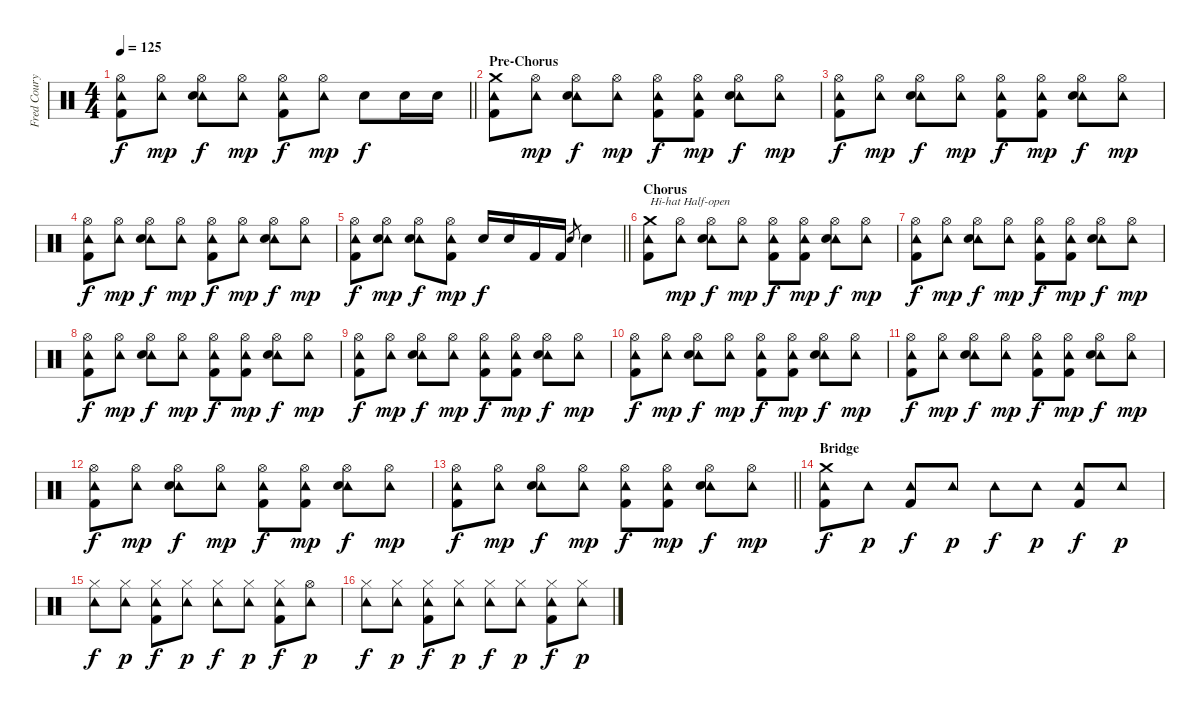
\track ("Fred Coury - Drums" "Fred Coury") {instrument percussion}
\staff {score}
\articulation defaults
\ts (4 4)
\tempo 125
\clef neutral
\barLineRight lightlight
\ks c
("Hi-Hat (open)" "Tambourine (hit)" "Kick (hit) 2").8{dy f} ("Hi-Hat (open)" "Tambourine (hit)").8{dy mp} ("Hi-Hat (open)" "Tambourine (hit)" "Snare (hit) 2").8{dy f} ("Hi-Hat (open)" "Tambourine (hit)").8{dy mp} ("Hi-Hat (open)" "Tambourine (hit)" "Kick (hit) 2").8{dy f} ("Hi-Hat (open)" "Tambourine (hit)").8{dy mp} "Snare (hit) 2".8{dy f} "Snare (hit) 2".16 "Snare (hit) 2".16 |
\section ("" "Pre-Chorus")
("Crash medium (hit)" "Tambourine (hit)" "Kick (hit) 2").8 ("Hi-Hat (open)" "Tambourine (hit)").8{dy mp} ("Hi-Hat (open)" "Tambourine (hit)" "Snare (hit) 2").8{dy f} ("Hi-Hat (open)" "Tambourine (hit)").8{dy mp} ("Hi-Hat (open)" "Tambourine (hit)" "Kick (hit) 2").8{dy f} ("Hi-Hat (open)" "Tambourine (hit)" "Kick (hit) 2").8{dy mp} ("Hi-Hat (open)" "Tambourine (hit)" "Snare (hit) 2").8{dy f} ("Hi-Hat (open)" "Tambourine (hit)").8{dy mp} |
("Hi-Hat (open)" "Tambourine (hit)" "Kick (hit) 2").8{dy f} ("Hi-Hat (open)" "Tambourine (hit)").8{dy mp} ("Hi-Hat (open)" "Tambourine (hit)" "Snare (hit) 2").8{dy f} ("Hi-Hat (open)" "Tambourine (hit)").8{dy mp} ("Hi-Hat (open)" "Tambourine (hit)" "Kick (hit) 2").8{dy f} ("Hi-Hat (open)" "Tambourine (hit)" "Kick (hit) 2").8{dy mp} ("Hi-Hat (open)" "Tambourine (hit)" "Snare (hit) 2").8{dy f} ("Hi-Hat (open)" "Tambourine (hit)").8{dy mp} |
("Hi-Hat (open)" "Tambourine (hit)" "Kick (hit) 2").8{dy f} ("Hi-Hat (open)" "Tambourine (hit)").8{dy mp} ("Hi-Hat (open)" "Tambourine (hit)" "Snare (hit) 2").8{dy f} ("Hi-Hat (open)" "Tambourine (hit)").8{dy mp} ("Hi-Hat (open)" "Tambourine (hit)" "Kick (hit) 2").8{dy f} ("Hi-Hat (open)" "Tambourine (hit)").8{dy mp} ("Hi-Hat (open)" "Tambourine (hit)" "Snare (hit) 2").8{dy f} ("Hi-Hat (open)" "Tambourine (hit)").8{dy mp} |
\barLineRight lightlight
("Hi-Hat (open)" "Tambourine (hit)" "Kick (hit) 2").8{dy f} ("Hi-Hat (open)" "Tambourine (hit)" "Snare (hit) 2").8{dy mp} ("Hi-Hat (open)" "Tambourine (hit)" "Snare (hit) 2").8{dy f} ("Hi-Hat (open)" "Tambourine (hit)" "Kick (hit) 2").8{dy mp} "Snare (hit) 2".16{dy f} "Snare (hit) 2".16 "Kick (hit) 2".16 "Kick (hit) 2".16 "Snare (hit) 2".8{gr} "Snare (hit) 2".4 |
\section ("" "Chorus")
("Crash medium (hit)" "Tambourine (hit)" "Kick (hit) 2").8{txt "Hi-hat Half-open"} ("Hi-Hat (open)" "Tambourine (hit)").8{dy mp} ("Hi-Hat (open)" "Tambourine (hit)" "Snare (hit) 2").8{dy f} ("Hi-Hat (open)" "Tambourine (hit)").8{dy mp} ("Hi-Hat (open)" "Tambourine (hit)" "Kick (hit) 2").8{dy f} ("Hi-Hat (open)" "Tambourine (hit)" "Kick (hit) 2").8{dy mp} ("Hi-Hat (open)" "Tambourine (hit)" "Snare (hit) 2").8{dy f} ("Hi-Hat (open)" "Tambourine (hit)").8{dy mp} |
("Hi-Hat (open)" "Tambourine (hit)" "Kick (hit) 2").8{dy f} ("Hi-Hat (open)" "Tambourine (hit)").8{dy mp} ("Hi-Hat (open)" "Tambourine (hit)" "Snare (hit) 2").8{dy f} ("Hi-Hat (open)" "Tambourine (hit)").8{dy mp} ("Hi-Hat (open)" "Tambourine (hit)" "Kick (hit) 2").8{dy f} ("Hi-Hat (open)" "Tambourine (hit)" "Kick (hit) 2").8{dy mp} ("Hi-Hat (open)" "Tambourine (hit)" "Snare (hit) 2").8{dy f} ("Hi-Hat (open)" "Tambourine (hit)").8{dy mp} |
("Hi-Hat (open)" "Tambourine (hit)" "Kick (hit) 2").8{dy f} ("Hi-Hat (open)" "Tambourine (hit)").8{dy mp} ("Hi-Hat (open)" "Tambourine (hit)" "Snare (hit) 2").8{dy f} ("Hi-Hat (open)" "Tambourine (hit)").8{dy mp} ("Hi-Hat (open)" "Tambourine (hit)" "Kick (hit) 2").8{dy f} ("Hi-Hat (open)" "Tambourine (hit)" "Kick (hit) 2").8{dy mp} ("Hi-Hat (open)" "Tambourine (hit)" "Snare (hit) 2").8{dy f} ("Hi-Hat (open)" "Tambourine (hit)").8{dy mp} |
("Hi-Hat (open)" "Tambourine (hit)" "Kick (hit) 2").8{dy f} ("Hi-Hat (open)" "Tambourine (hit)").8{dy mp} ("Hi-Hat (open)" "Tambourine (hit)" "Snare (hit) 2").8{dy f} ("Hi-Hat (open)" "Tambourine (hit)").8{dy mp} ("Hi-Hat (open)" "Tambourine (hit)" "Kick (hit) 2").8{dy f} ("Hi-Hat (open)" "Tambourine (hit)" "Kick (hit) 2").8{dy mp} ("Hi-Hat (open)" "Tambourine (hit)" "Snare (hit) 2").8{dy f} ("Hi-Hat (open)" "Tambourine (hit)").8{dy mp} |
("Hi-Hat (open)" "Tambourine (hit)" "Kick (hit) 2").8{dy f} ("Hi-Hat (open)" "Tambourine (hit)").8{dy mp} ("Hi-Hat (open)" "Tambourine (hit)" "Snare (hit) 2").8{dy f} ("Hi-Hat (open)" "Tambourine (hit)").8{dy mp} ("Hi-Hat (open)" "Tambourine (hit)" "Kick (hit) 2").8{dy f} ("Hi-Hat (open)" "Tambourine (hit)" "Kick (hit) 2").8{dy mp} ("Hi-Hat (open)" "Tambourine (hit)" "Snare (hit) 2").8{dy f} ("Hi-Hat (open)" "Tambourine (hit)").8{dy mp} |
("Hi-Hat (open)" "Tambourine (hit)" "Kick (hit) 2").8{dy f} ("Hi-Hat (open)" "Tambourine (hit)").8{dy mp} ("Hi-Hat (open)" "Tambourine (hit)" "Snare (hit) 2").8{dy f} ("Hi-Hat (open)" "Tambourine (hit)").8{dy mp} ("Hi-Hat (open)" "Tambourine (hit)" "Kick (hit) 2").8{dy f} ("Hi-Hat (open)" "Tambourine (hit)" "Kick (hit) 2").8{dy mp} ("Hi-Hat (open)" "Tambourine (hit)" "Snare (hit) 2").8{dy f} ("Hi-Hat (open)" "Tambourine (hit)").8{dy mp} |
("Hi-Hat (open)" "Tambourine (hit)" "Kick (hit) 2").8{dy f} ("Hi-Hat (open)" "Tambourine (hit)").8{dy mp} ("Hi-Hat (open)" "Tambourine (hit)" "Snare (hit) 2").8{dy f} ("Hi-Hat (open)" "Tambourine (hit)").8{dy mp} ("Hi-Hat (open)" "Tambourine (hit)" "Kick (hit) 2").8{dy f} ("Hi-Hat (open)" "Tambourine (hit)" "Kick (hit) 2").8{dy mp} ("Hi-Hat (open)" "Tambourine (hit)" "Snare (hit) 2").8{dy f} ("Hi-Hat (open)" "Tambourine (hit)").8{dy mp} |
\barLineRight lightlight
("Hi-Hat (open)" "Tambourine (hit)" "Kick (hit) 2").8{dy f} ("Hi-Hat (open)" "Tambourine (hit)").8{dy mp} ("Hi-Hat (open)" "Tambourine (hit)" "Snare (hit) 2").8{dy f} ("Hi-Hat (open)" "Tambourine (hit)").8{dy mp} ("Hi-Hat (open)" "Tambourine (hit)" "Kick (hit) 2").8{dy f} ("Hi-Hat (open)" "Tambourine (hit)" "Kick (hit) 2").8{dy mp} ("Hi-Hat (open)" "Tambourine (hit)" "Snare (hit) 2").8{dy f} ("Hi-Hat (open)" "Tambourine (hit)").8{dy mp} |
\section ("" "Bridge")
("Crash medium (hit)" "Tambourine (hit)" "Kick (hit) 2").8{dy f} "Tambourine (hit)".8{dy p} ("Tambourine (hit)" "Kick (hit) 2").8{dy f} "Tambourine (hit)".8{dy p} "Tambourine (hit)".8{dy f} "Tambourine (hit)".8{dy p} ("Tambourine (hit)" "Kick (hit) 2").8{dy f} "Tambourine (hit)".8{dy p} |
("Hi-Hat (closed)" "Tambourine (hit)").8{dy f} ("Hi-Hat (closed)" "Tambourine (hit)").8{dy p} ("Hi-Hat (closed)" "Tambourine (hit)" "Kick (hit) 2").8{dy f} ("Hi-Hat (closed)" "Tambourine (hit)").8{dy p} ("Hi-Hat (closed)" "Tambourine (hit)").8{dy f} ("Hi-Hat (closed)" "Tambourine (hit)").8{dy p} ("Hi-Hat (closed)" "Tambourine (hit)" "Kick (hit) 2").8{dy f} ("Hi-Hat (open)" "Tambourine (hit)").8{dy p} |
("Hi-Hat (closed)" "Tambourine (hit)").8{dy f} ("Hi-Hat (closed)" "Tambourine (hit)").8{dy p} ("Hi-Hat (closed)" "Tambourine (hit)" "Kick (hit) 2").8{dy f} ("Hi-Hat (closed)" "Tambourine (hit)").8{dy p} ("Hi-Hat (closed)" "Tambourine (hit)").8{dy f} ("Hi-Hat (closed)" "Tambourine (hit)").8{dy p} ("Hi-Hat (closed)" "Tambourine (hit)" "Kick (hit) 2").8{dy f} ("Hi-Hat (closed)" "Tambourine (hit)").8{dy p}
